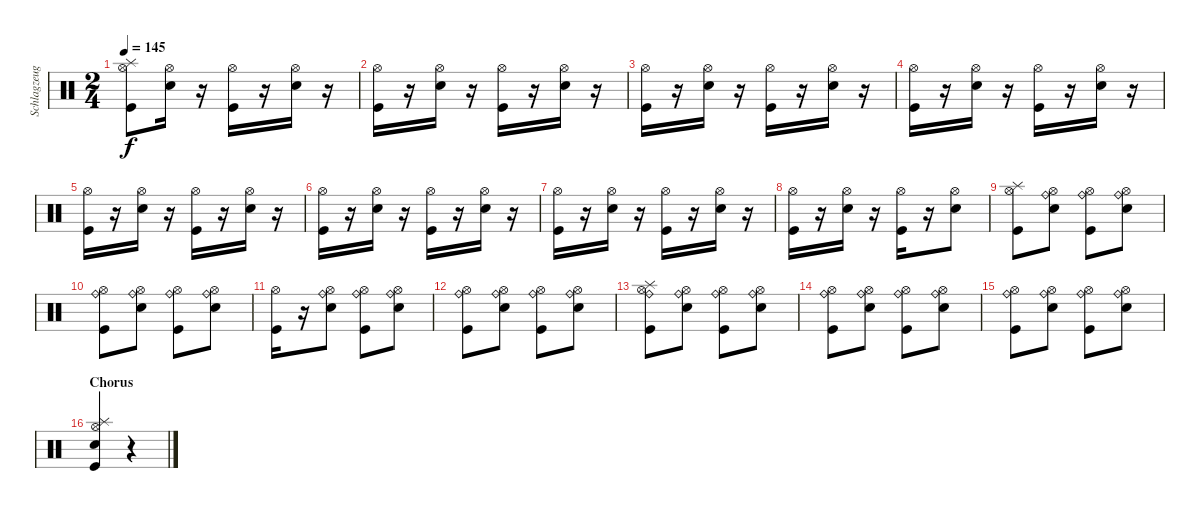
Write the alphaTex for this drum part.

\track ("Schlagzeug - Bela B." "Schlagzeug") {instrument percussion}
\staff {score}
\articulation defaults
\ts (2 4)
\tempo 145
\clef neutral
\ks c
("Kick (hit)" "Hi-Hat (open)" "Splash (hit)").8{dy f} ("Electric Snare (hit)" "Hi-Hat (open)").16 r.16 ("Kick (hit)" "Hi-Hat (open)").16 r.16 ("Electric Snare (hit)" "Hi-Hat (open)").16 r.16 |
("Kick (hit)" "Hi-Hat (open)").16 r.16 ("Electric Snare (hit)" "Hi-Hat (open)").16 r.16 ("Kick (hit)" "Hi-Hat (open)").16 r.16 ("Electric Snare (hit)" "Hi-Hat (open)").16 r.16 |
("Kick (hit)" "Hi-Hat (open)").16 r.16 ("Electric Snare (hit)" "Hi-Hat (open)").16 r.16 ("Kick (hit)" "Hi-Hat (open)").16 r.16 ("Electric Snare (hit)" "Hi-Hat (open)").16 r.16 |
("Kick (hit)" "Hi-Hat (open)").16 r.16 ("Electric Snare (hit)" "Hi-Hat (open)").16 r.16 ("Kick (hit)" "Hi-Hat (open)").16 r.16 ("Electric Snare (hit)" "Hi-Hat (open)").16 r.16 |
("Kick (hit)" "Hi-Hat (open)").16 r.16 ("Electric Snare (hit)" "Hi-Hat (open)").16 r.16 ("Kick (hit)" "Hi-Hat (open)").16 r.16 ("Electric Snare (hit)" "Hi-Hat (open)").16 r.16 |
("Kick (hit)" "Hi-Hat (open)").16 r.16 ("Electric Snare (hit)" "Hi-Hat (open)").16 r.16 ("Kick (hit)" "Hi-Hat (open)").16 r.16 ("Electric Snare (hit)" "Hi-Hat (open)").16 r.16 |
("Kick (hit)" "Hi-Hat (open)").16 r.16 ("Electric Snare (hit)" "Hi-Hat (open)").16 r.16 ("Kick (hit)" "Hi-Hat (open)").16 r.16 ("Electric Snare (hit)" "Hi-Hat (open)").16 r.16 |
("Kick (hit)" "Hi-Hat (open)").16 r.16 ("Electric Snare (hit)" "Hi-Hat (open)").16 r.16 ("Kick (hit)" "Hi-Hat (open)").16 r.16 ("Hi-Hat (open)" "Electric Snare (hit)").8 |
("Kick (hit)" "Hi-Hat (open)" "Splash (hit)").8 ("Electric Snare (hit)" "Hi-Hat (open)" "Ride (bell)").8 ("Kick (hit)" "Hi-Hat (open)" "Ride (bell)").8 ("Electric Snare (hit)" "Hi-Hat (open)" "Ride (bell)").8 |
("Kick (hit)" "Hi-Hat (open)" "Ride (bell)").8 ("Electric Snare (hit)" "Hi-Hat (open)" "Ride (bell)").8 ("Kick (hit)" "Hi-Hat (open)" "Ride (bell)").8 ("Hi-Hat (open)" "Electric Snare (hit)" "Ride (bell)").8 |
("Kick (hit)" "Hi-Hat (open)").16 r.16 ("Electric Snare (hit)" "Hi-Hat (open)" "Ride (bell)").8 ("Kick (hit)" "Hi-Hat (open)" "Ride (bell)").8 ("Electric Snare (hit)" "Hi-Hat (open)" "Ride (bell)").8 |
("Kick (hit)" "Hi-Hat (open)" "Ride (bell)").8 ("Electric Snare (hit)" "Hi-Hat (open)" "Ride (bell)").8 ("Kick (hit)" "Hi-Hat (open)" "Ride (bell)").8 ("Hi-Hat (open)" "Electric Snare (hit)" "Ride (bell)").8 |
("Kick (hit)" "Hi-Hat (open)" "Ride (bell)" "Splash (hit)").8 ("Electric Snare (hit)" "Hi-Hat (open)" "Ride (bell)").8 ("Kick (hit)" "Hi-Hat (open)" "Ride (bell)").8 ("Electric Snare (hit)" "Hi-Hat (open)" "Ride (bell)").8 |
("Kick (hit)" "Hi-Hat (open)" "Ride (bell)").8 ("Electric Snare (hit)" "Hi-Hat (open)" "Ride (bell)").8 ("Kick (hit)" "Hi-Hat (open)" "Ride (bell)").8 ("Hi-Hat (open)" "Electric Snare (hit)" "Ride (bell)").8 |
("Kick (hit)" "Hi-Hat (open)" "Ride (bell)").8 ("Electric Snare (hit)" "Hi-Hat (open)" "Ride (bell)").8 ("Kick (hit)" "Hi-Hat (open)" "Ride (bell)").8 ("Electric Snare (hit)" "Hi-Hat (open)" "Ride (bell)").8 |
\section ("" "Chorus")
("Kick (hit)" "Hi-Hat (open)" "Electric Snare (hit)" "Splash (hit)").4 r.4
